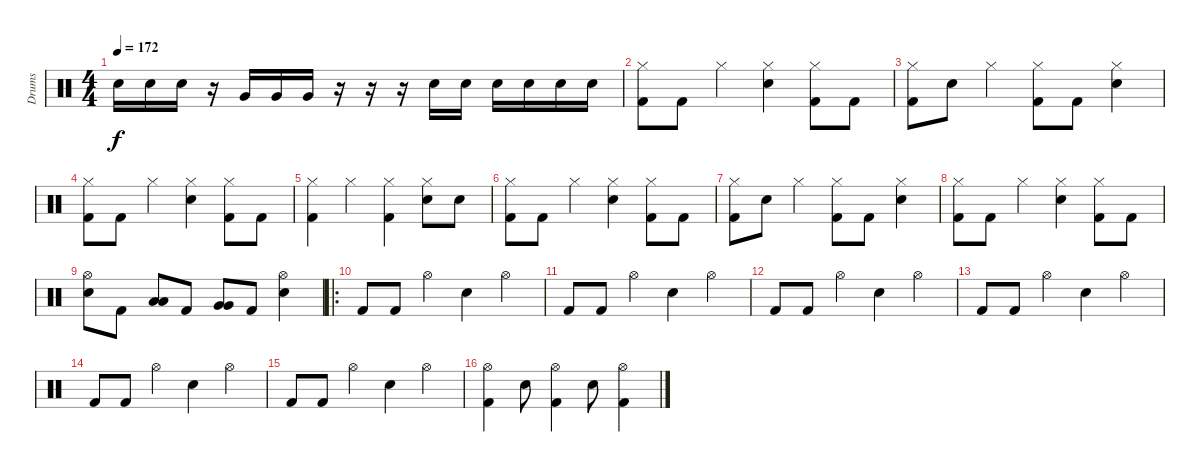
\track ("Drums" "Drums") {instrument percussion}
\staff {score}
\articulation defaults
\ts (4 4)
\tempo 172
\clef neutral
\ks c "Electric Snare (hit)".16{dy f} "Electric Snare (hit)".16 "Electric Snare (hit)".16
r.16 "Very Low Tom (hit)".16 "Very Low Tom (hit)".16 "Very Low Tom (hit)".16 r.16 r.16 r.16 "Electric Snare (hit)".16 "Electric Snare (hit)".16 "Electric Snare (hit)".16 "Electric Snare (hit)".16 "Electric Snare (hit)".16 "Electric Snare (hit)".16 |
("Hi-Hat (closed)" "Kick (hit) 2").8 "Kick (hit) 2".8 "Hi-Hat (closed)".4 ("Hi-Hat (closed)" "Electric Snare (hit)").4 ("Hi-Hat (closed)" "Kick (hit) 2").8 "Kick (hit) 2".8 |
("Hi-Hat (closed)" "Kick (hit) 2").8 "Electric Snare (hit)".8 "Hi-Hat (closed)".4 ("Hi-Hat (closed)" "Kick (hit) 2").8 "Kick (hit) 2".8 ("Hi-Hat (closed)" "Electric Snare (hit)").4 |
("Hi-Hat (closed)" "Kick (hit) 2").8 "Kick (hit) 2".8 "Hi-Hat (closed)".4 ("Hi-Hat (closed)" "Electric Snare (hit)").4 ("Hi-Hat (closed)" "Kick (hit) 2").8 "Kick (hit) 2".8 |
("Hi-Hat (closed)" "Kick (hit) 2").4 "Hi-Hat (closed)".4 ("Hi-Hat (closed)" "Kick (hit) 2").4 ("Hi-Hat (closed)" "Electric Snare (hit)").8 "Electric Snare (hit)".8 |
("Hi-Hat (closed)" "Kick (hit) 2").8 "Kick (hit) 2".8 "Hi-Hat (closed)".4 ("Hi-Hat (closed)" "Electric Snare (hit)").4 ("Hi-Hat (closed)" "Kick (hit) 2").8 "Kick (hit) 2".8 |
("Hi-Hat (closed)" "Kick (hit) 2").8 "Electric Snare (hit)".8 "Hi-Hat (closed)".4 ("Hi-Hat (closed)" "Kick (hit) 2").8 "Kick (hit) 2".8 ("Hi-Hat (closed)" "Electric Snare (hit)").4 |
("Hi-Hat (closed)" "Kick (hit) 2").8 "Kick (hit) 2".8 "Hi-Hat (closed)".4 ("Hi-Hat (closed)" "Electric Snare (hit)").4 ("Hi-Hat (closed)" "Kick (hit) 2").8 "Kick (hit) 2".8 |
("Hi-Hat (open)" "Electric Snare (hit)").8 "Kick (hit) 2".8 ("Low Tom (hit)" "Low Tom (hit)").8 "Kick (hit) 2".8 ("Very Low Tom (hit)" "Very Low Tom (hit)").8 "Kick (hit) 2".8 ("Hi-Hat (open)" "Electric Snare (hit)").4 |
\ro "Kick (hit) 2".8 "Kick (hit) 2".8 "Hi-Hat (open)".4 "Electric Snare (hit)".4 "Hi-Hat (open)".4
|
"Kick (hit) 2".8 "Kick (hit) 2".8 "Hi-Hat (open)".4 "Electric Snare (hit)".4 "Hi-Hat (open)".4 |
"Kick (hit) 2".8 "Kick (hit) 2".8 "Hi-Hat (open)".4 "Electric Snare (hit)".4 "Hi-Hat (open)".4 |
"Kick (hit) 2".8 "Kick (hit) 2".8 "Hi-Hat (open)".4 "Electric Snare (hit)".4 "Hi-Hat (open)".4 |
"Kick (hit) 2".8 "Kick (hit) 2".8 "Hi-Hat (open)".4 "Electric Snare (hit)".4 "Hi-Hat (open)".4 |
"Kick (hit) 2".8 "Kick (hit) 2".8 "Hi-Hat (open)".4 "Electric Snare (hit)".4 "Hi-Hat (open)".4 |
("Hi-Hat (open)" "Kick (hit) 2").4 "Electric Snare (hit)".8 ("Hi-Hat (open)" "Kick (hit) 2").4 "Electric Snare (hit)".8 ("Hi-Hat (open)" "Kick (hit) 2").4
